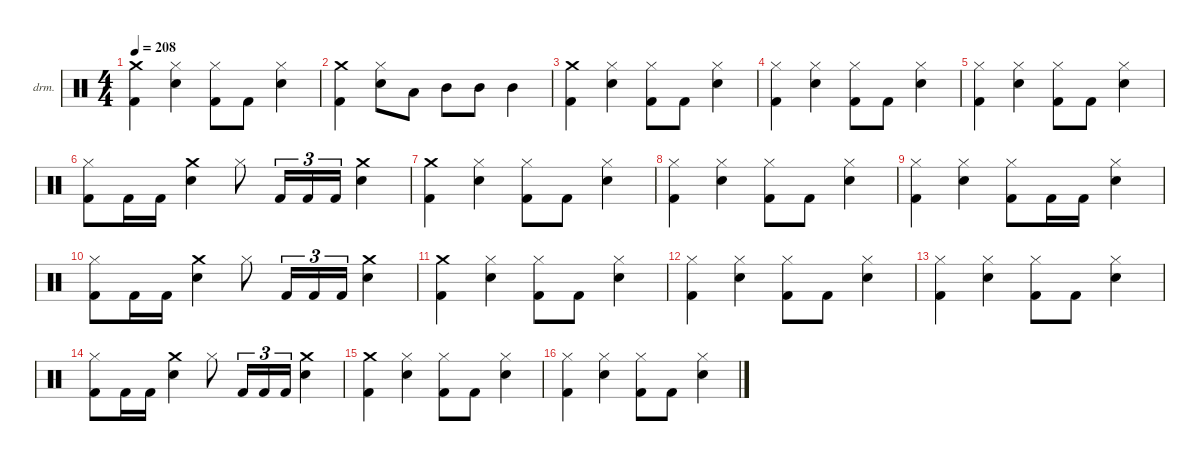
\defaultSystemsLayout 4
\hideDynamics
\bracketExtendMode nobrackets
\firstSystemTrackNameOrientation horizontal
\otherSystemsTrackNameOrientation horizontal
\track ("Drums" "drm.") {instrument percussion}
\staff {score}
\articulation defaults
\ts (4 4)
\tempo 208
\clef neutral
\ks c
("Kick (hit) 2" "Crash medium (hit)").4{dy f} ("Snare (hit) 2" "Hi-Hat (closed)").4 ("Kick (hit) 2" "Hi-Hat (closed)").8 "Kick (hit) 2".8 ("Snare (hit) 2" "Hi-Hat (closed)").4 |
("Kick (hit) 2" "Crash medium (hit)").4 ("Snare (hit) 2" "Hi-Hat (closed)").8 "Low Tom (hit)".8 "Mid Tom (hit)".8 "Mid Tom (hit)".8 "Mid Tom (hit)".4 |
("Kick (hit) 2" "Crash medium (hit)").4 ("Snare (hit) 2" "Hi-Hat (closed)").4 ("Kick (hit) 2" "Hi-Hat (closed)").8 "Kick (hit) 2".8 ("Snare (hit) 2" "Hi-Hat (closed)").4 |
("Hi-Hat (closed)" "Kick (hit) 2").4 ("Snare (hit) 2" "Hi-Hat (closed)").4 ("Hi-Hat (closed)" "Kick (hit) 2").8 "Kick (hit) 2".8 ("Snare (hit) 2" "Hi-Hat (closed)").4 |
("Kick (hit) 2" "Hi-Hat (closed)").4 ("Snare (hit) 2" "Hi-Hat (closed)").4 ("Hi-Hat (closed)" "Kick (hit) 2").8 "Kick (hit) 2".8 ("Snare (hit) 2" "Hi-Hat (closed)").4 |
("Hi-Hat (closed)" "Kick (hit) 2").8 "Kick (hit) 2".16 "Kick (hit) 2".16 ("Snare (hit) 2" "Crash medium (hit)").4 "Hi-Hat (closed)".8 "Kick (hit) 2".16{tu (3 2)} "Kick (hit) 2".16{tu (3 2)} "Kick (hit) 2".16{tu (3 2)} ("Snare (hit) 2" "Crash medium (hit)").4 |
("Crash medium (hit)" "Kick (hit) 2").4 ("Snare (hit) 2" "Hi-Hat (closed)").4 ("Kick (hit) 2" "Hi-Hat (closed)").8 "Kick (hit) 2".8 ("Snare (hit) 2" "Hi-Hat (closed)").4 |
("Kick (hit) 2" "Hi-Hat (closed)").4 ("Snare (hit) 2" "Hi-Hat (closed)").4 ("Hi-Hat (closed)" "Kick (hit) 2").8 "Kick (hit) 2".8 ("Snare (hit) 2" "Hi-Hat (closed)").4 |
("Kick (hit) 2" "Hi-Hat (closed)").4 ("Snare (hit) 2" "Hi-Hat (closed)").4 ("Hi-Hat (closed)" "Kick (hit) 2").8 "Kick (hit) 2".16 "Kick (hit) 2".16 ("Snare (hit) 2" "Hi-Hat (closed)").4 |
("Hi-Hat (closed)" "Kick (hit) 2").8 "Kick (hit) 2".16 "Kick (hit) 2".16 ("Snare (hit) 2" "Crash medium (hit)").4 "Hi-Hat (closed)".8 "Kick (hit) 2".16{tu (3 2)} "Kick (hit) 2".16{tu (3 2)} "Kick (hit) 2".16{tu (3 2)} ("Snare (hit) 2" "Crash medium (hit)").4 |
("Crash medium (hit)" "Kick (hit) 2").4 ("Snare (hit) 2" "Hi-Hat (closed)").4 ("Kick (hit) 2" "Hi-Hat (closed)").8 "Kick (hit) 2".8 ("Snare (hit) 2" "Hi-Hat (closed)").4 |
("Kick (hit) 2" "Hi-Hat (closed)").4 ("Snare (hit) 2" "Hi-Hat (closed)").4 ("Hi-Hat (closed)" "Kick (hit) 2").8 "Kick (hit) 2".8 ("Snare (hit) 2" "Hi-Hat (closed)").4 |
("Kick (hit) 2" "Hi-Hat (closed)").4 ("Snare (hit) 2" "Hi-Hat (closed)").4 ("Hi-Hat (closed)" "Kick (hit) 2").8 "Kick (hit) 2".8 ("Snare (hit) 2" "Hi-Hat (closed)").4 |
("Hi-Hat (closed)" "Kick (hit) 2").8 "Kick (hit) 2".16 "Kick (hit) 2".16 ("Snare (hit) 2" "Crash medium (hit)").4 "Hi-Hat (closed)".8 "Kick (hit) 2".16{tu (3 2)} "Kick (hit) 2".16{tu (3 2)} "Kick (hit) 2".16{tu (3 2)} ("Snare (hit) 2" "Crash medium (hit)").4 |
("Crash medium (hit)" "Kick (hit) 2").4 ("Snare (hit) 2" "Hi-Hat (closed)").4 ("Kick (hit) 2" "Hi-Hat (closed)").8 "Kick (hit) 2".8 ("Snare (hit) 2" "Hi-Hat (closed)").4 |
("Kick (hit) 2" "Hi-Hat (closed)").4 ("Snare (hit) 2" "Hi-Hat (closed)").4 ("Hi-Hat (closed)" "Kick (hit) 2").8 "Kick (hit) 2".8 ("Snare (hit) 2" "Hi-Hat (closed)").4
